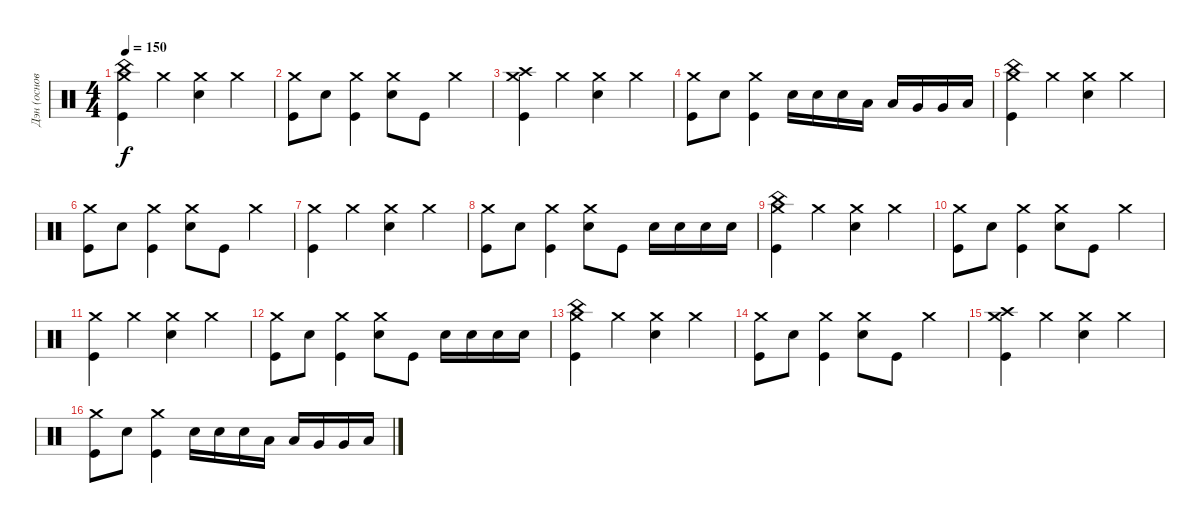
\track ("Дэн (основа)" "Дэн (основ") {instrument percussion}
\staff {score}
\articulation defaults
\ts (4 4)
\tempo 150
\clef neutral
\ks c
("China (hit)" "Crash medium (hit)" "Kick (hit)").4{dy f} "Crash medium (hit)".4 ("Crash medium (hit)" "Electric Snare (hit)").4 "Crash medium (hit)".4 |
("Crash medium (hit)" "Kick (hit)").8 "Electric Snare (hit)".8 ("Crash medium (hit)" "Kick (hit)").4 ("Crash medium (hit)" "Electric Snare (hit)").8 "Kick (hit)".8 "Crash medium (hit)".4 |
("Crash high (hit)" "Crash medium (hit)" "Kick (hit)").4 "Crash medium (hit)".4 ("Crash medium (hit)" "Electric Snare (hit)").4 "Crash medium (hit)".4 |
("Crash medium (hit)" "Kick (hit)").8 "Electric Snare (hit)".8 ("Crash medium (hit)" "Kick (hit)").4 "Electric Snare (hit)".16 "Electric Snare (hit)".16 "Electric Snare (hit)".16 "Low Tom (hit)".16 "Low Tom (hit)".16 "Very Low Tom (hit)".16 "Very Low Tom (hit)".16 "Low Floor Tom (hit)".16 |
("China (hit)" "Crash medium (hit)" "Kick (hit)").4 "Crash medium (hit)".4 ("Crash medium (hit)" "Electric Snare (hit)").4 "Crash medium (hit)".4 |
("Crash medium (hit)" "Kick (hit)").8 "Electric Snare (hit)".8 ("Crash medium (hit)" "Kick (hit)").4 ("Crash medium (hit)" "Electric Snare (hit)").8 "Kick (hit)".8 "Crash medium (hit)".4 |
("Crash medium (hit)" "Kick (hit)").4 "Crash medium (hit)".4 ("Crash medium (hit)" "Electric Snare (hit)").4 "Crash medium (hit)".4 |
("Crash medium (hit)" "Kick (hit)").8 "Electric Snare (hit)".8 ("Crash medium (hit)" "Kick (hit)").4 ("Crash medium (hit)" "Electric Snare (hit)").8 "Kick (hit)".8 "Electric Snare (hit)".16 "Electric Snare (hit)".16 "Electric Snare (hit)".16 "Electric Snare (hit)".16 |
("China (hit)" "Crash medium (hit)" "Kick (hit)").4 "Crash medium (hit)".4 ("Crash medium (hit)" "Electric Snare (hit)").4 "Crash medium (hit)".4 |
("Crash medium (hit)" "Kick (hit)").8 "Electric Snare (hit)".8 ("Crash medium (hit)" "Kick (hit)").4 ("Crash medium (hit)" "Electric Snare (hit)").8 "Kick (hit)".8 "Crash medium (hit)".4 |
("Crash medium (hit)" "Kick (hit)").4 "Crash medium (hit)".4 ("Crash medium (hit)" "Electric Snare (hit)").4 "Crash medium (hit)".4 |
("Crash medium (hit)" "Kick (hit)").8 "Electric Snare (hit)".8 ("Crash medium (hit)" "Kick (hit)").4 ("Crash medium (hit)" "Electric Snare (hit)").8 "Kick (hit)".8 "Electric Snare (hit)".16 "Electric Snare (hit)".16 "Electric Snare (hit)".16 "Electric Snare (hit)".16 |
("China (hit)" "Crash medium (hit)" "Kick (hit)").4 "Crash medium (hit)".4 ("Crash medium (hit)" "Electric Snare (hit)").4 "Crash medium (hit)".4 |
("Crash medium (hit)" "Kick (hit)").8 "Electric Snare (hit)".8 ("Crash medium (hit)" "Kick (hit)").4 ("Crash medium (hit)" "Electric Snare (hit)").8 "Kick (hit)".8 "Crash medium (hit)".4 |
("Crash high (hit)" "Crash medium (hit)" "Kick (hit)").4 "Crash medium (hit)".4 ("Crash medium (hit)" "Electric Snare (hit)").4 "Crash medium (hit)".4 |
("Crash medium (hit)" "Kick (hit)").8 "Electric Snare (hit)".8 ("Crash medium (hit)" "Kick (hit)").4 "Electric Snare (hit)".16 "Electric Snare (hit)".16 "Electric Snare (hit)".16 "Low Tom (hit)".16 "Low Tom (hit)".16 "Very Low Tom (hit)".16 "Very Low Tom (hit)".16 "Low Floor Tom (hit)".16
